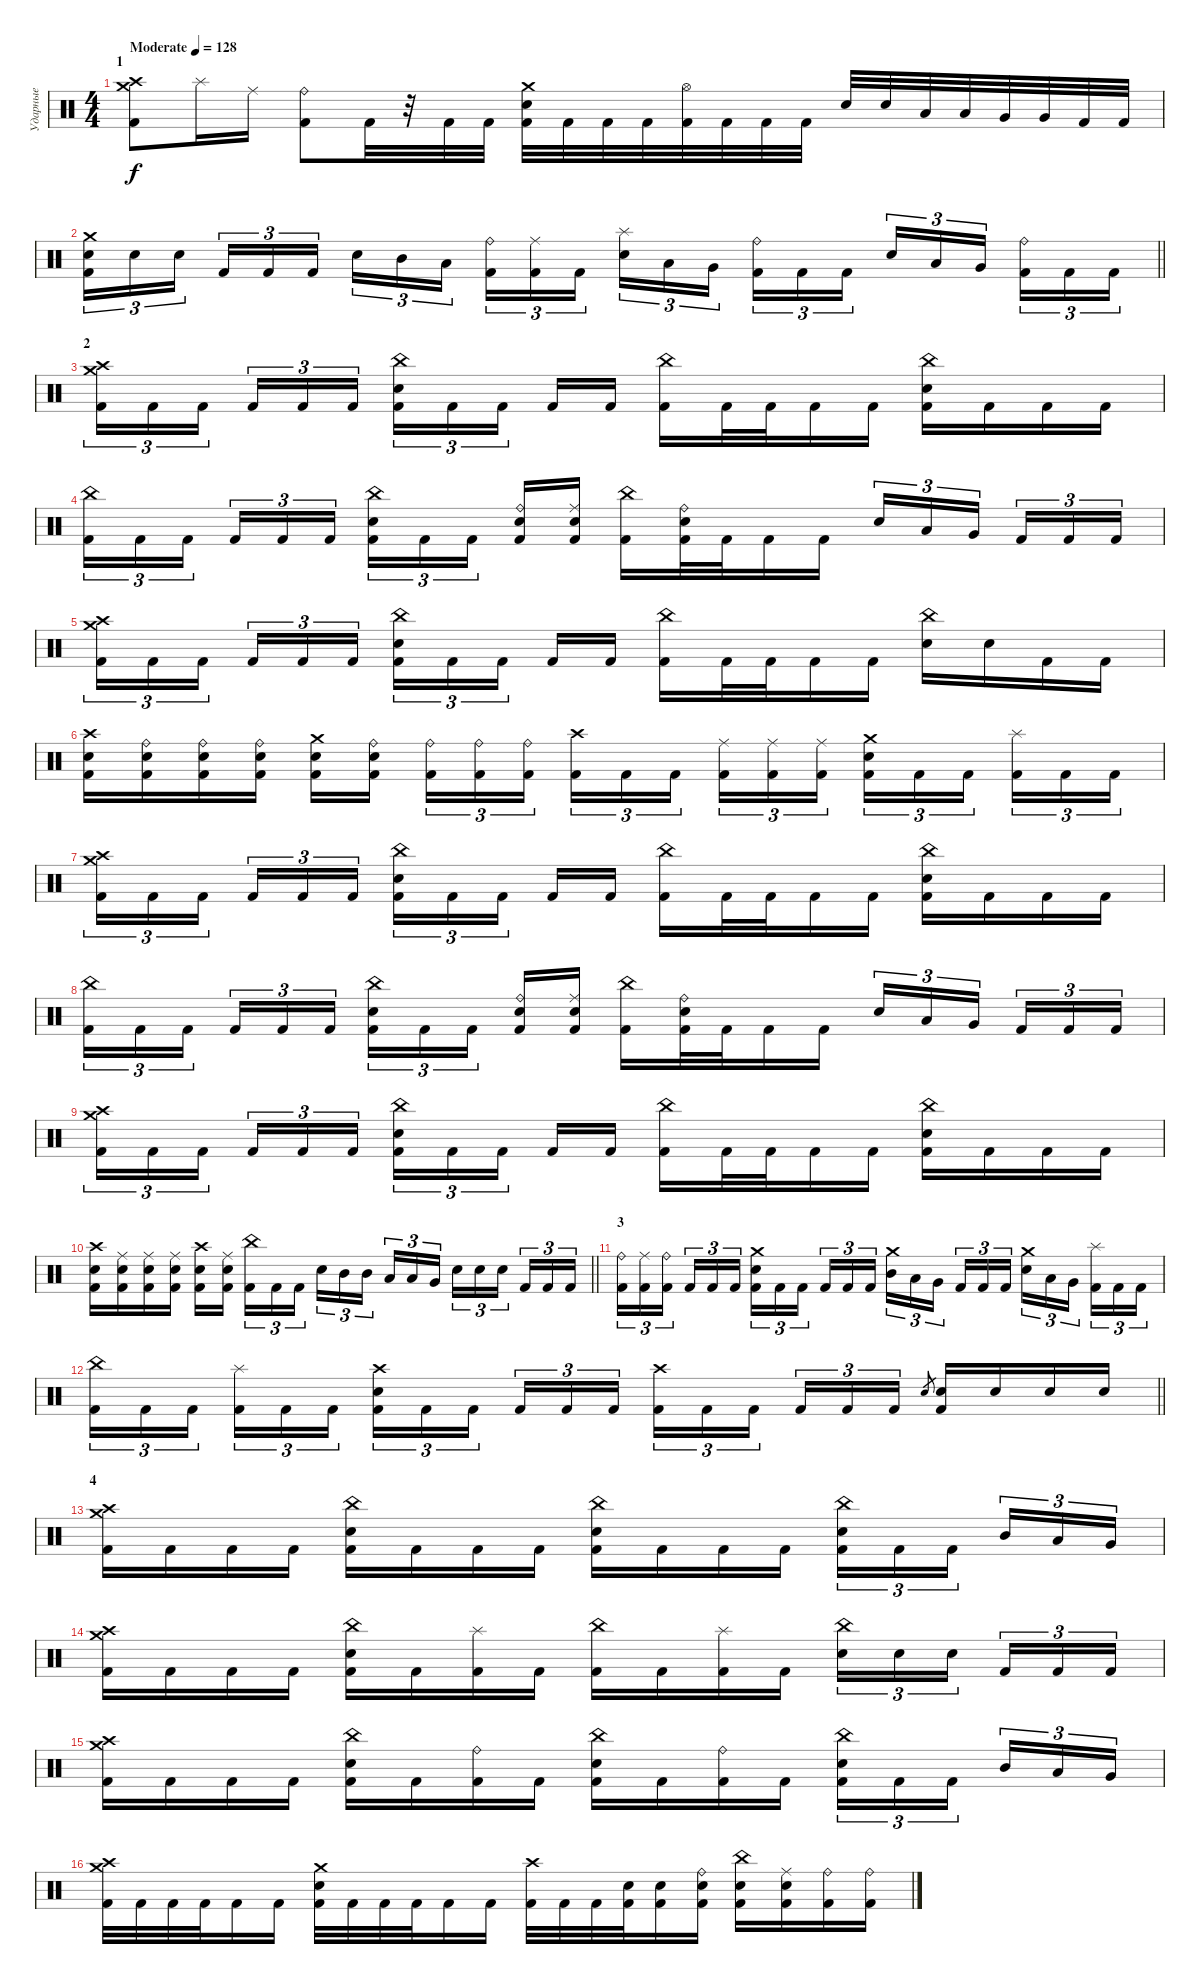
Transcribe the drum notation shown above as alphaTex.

\track ("Ударные" "Ударные") {instrument percussion}
\staff {score}
\articulation defaults
\ts (4 4)
\section ("" "1")
\tempo (128 "Moderate")
\clef neutral
\ks c
("Crash medium (hit)" "Crash high (hit)" "Kick (hit) 2").8{dy f} "Splash (hit)".16 "Ride (middle)".16 ("Ride (bell)" "Kick (hit) 2").8 "Kick (hit) 2".32 r.32 "Kick (hit) 2".32 "Kick (hit) 2".32 ("Crash medium (hit)" "Electric Snare (hit)" "Kick (hit) 2").32 "Kick (hit) 2".32 "Kick (hit) 2".32 "Kick (hit) 2".32 ("Hi-Hat (open)" "Kick (hit) 2").32 "Kick (hit) 2".32 "Kick (hit) 2".32 "Kick (hit) 2".32 "Electric Snare (hit)".32 "Electric Snare (hit)".32 "Low Tom (hit)".32 "Low Tom (hit)".32 "Very Low Tom (hit)".32 "Very Low Tom (hit)".32 "Kick (hit) 2".32 "Kick (hit) 2".32 |
\barLineRight lightlight
("Crash medium (hit)" "Electric Snare (hit)" "Kick (hit) 2").16{tu (3 2)} "Electric Snare (hit)".16{tu (3 2)} "Electric Snare (hit)".16{tu (3 2) beam splitsecondary} "Kick (hit) 2".16{tu (3 2)} "Kick (hit) 2".16{tu (3 2)} "Kick (hit) 2".16{tu (3 2)} "Electric Snare (hit)".16{tu (3 2)} "Mid Tom (hit)".16{tu (3 2)} "Low Tom (hit)".16{tu (3 2) beam splitsecondary} ("Ride (bell)" "Kick (hit) 2").16{tu (3 2)} ("Ride (middle)" "Kick (hit) 2").16{tu (3 2)} "Kick (hit) 2".16{tu (3 2)} ("Splash (hit)" "Electric Snare (hit)").16{tu (3 2)} "Low Tom (hit)".16{tu (3 2)} "Very Low Tom (hit)".16{tu (3 2) beam splitsecondary} ("Ride (bell)" "Kick (hit) 2").16{tu (3 2)} "Kick (hit) 2".16{tu (3 2)} "Kick (hit) 2".16{tu (3 2)} "Electric Snare (hit)".16{tu (3 2)} "Low Tom (hit)".16{tu (3 2)} "Very Low Tom (hit)".16{tu (3 2) beam splitsecondary} ("Ride (bell)" "Kick (hit) 2").16{tu (3 2)} "Kick (hit) 2".16{tu (3 2)} "Kick (hit) 2".16{tu (3 2)} |
\section ("" "2")
("Crash medium (hit)" "Crash high (hit)" "Kick (hit) 2").16{tu (3 2)} "Kick (hit) 2".16{tu (3 2)} "Kick (hit) 2".16{tu (3 2) beam splitsecondary} "Kick (hit) 2".16{tu (3 2)} "Kick (hit) 2".16{tu (3 2)} "Kick (hit) 2".16{tu (3 2)} ("China (hit)" "Electric Snare (hit)" "Kick (hit) 2").16{tu (3 2)} "Kick (hit) 2".16{tu (3 2)} "Kick (hit) 2".16{tu (3 2) beam splitsecondary} "Kick (hit) 2".16 "Kick (hit) 2".16 ("China (hit)" "Kick (hit) 2").16 "Kick (hit) 2".32 "Kick (hit) 2".32 "Kick (hit) 2".16 "Kick (hit) 2".16 ("China (hit)" "Electric Snare (hit)" "Kick (hit) 2").16 "Kick (hit) 2".16 "Kick (hit) 2".16 "Kick (hit) 2".16 |
("China (hit)" "Kick (hit) 2").16{tu (3 2)} "Kick (hit) 2".16{tu (3 2)} "Kick (hit) 2".16{tu (3 2) beam splitsecondary} "Kick (hit) 2".16{tu (3 2)} "Kick (hit) 2".16{tu (3 2)} "Kick (hit) 2".16{tu (3 2)} ("China (hit)" "Electric Snare (hit)" "Kick (hit) 2").16{tu (3 2)} "Kick (hit) 2".16{tu (3 2)} "Kick (hit) 2".16{tu (3 2) beam splitsecondary} ("Ride (bell)" "Electric Snare (hit)" "Kick (hit) 2").16 ("Ride (middle)" "Electric Snare (hit)" "Kick (hit) 2").16 ("China (hit)" "Kick (hit) 2").16 ("Ride (bell)" "Electric Snare (hit)" "Kick (hit) 2").32 "Kick (hit) 2".32 "Kick (hit) 2".16 "Kick (hit) 2".16 "Electric Snare (hit)".16{tu (3 2)} "Low Tom (hit)".16{tu (3 2)} "Very Low Tom (hit)".16{tu (3 2) beam splitsecondary} "Kick (hit) 2".16{tu (3 2)} "Kick (hit) 2".16{tu (3 2)} "Kick (hit) 2".16{tu (3 2)} |
("Crash medium (hit)" "Crash high (hit)" "Kick (hit) 2").16{tu (3 2)} "Kick (hit) 2".16{tu (3 2)} "Kick (hit) 2".16{tu (3 2) beam splitsecondary} "Kick (hit) 2".16{tu (3 2)} "Kick (hit) 2".16{tu (3 2)} "Kick (hit) 2".16{tu (3 2)} ("China (hit)" "Electric Snare (hit)" "Kick (hit) 2").16{tu (3 2)} "Kick (hit) 2".16{tu (3 2)} "Kick (hit) 2".16{tu (3 2) beam splitsecondary} "Kick (hit) 2".16 "Kick (hit) 2".16 ("China (hit)" "Kick (hit) 2").16 "Kick (hit) 2".32 "Kick (hit) 2".32 "Kick (hit) 2".16 "Kick (hit) 2".16 ("China (hit)" "Electric Snare (hit)").16 "Electric Snare (hit)".16 "Kick (hit) 2".16 "Kick (hit) 2".16 |
("Crash high (hit)" "Electric Snare (hit)" "Kick (hit) 2").16 ("Ride (bell)" "Electric Snare (hit)" "Kick (hit) 2").16 ("Ride (bell)" "Electric Snare (hit)" "Kick (hit) 2").16 ("Ride (bell)" "Electric Snare (hit)" "Kick (hit) 2").16 ("Crash medium (hit)" "Electric Snare (hit)" "Kick (hit) 2").16 ("Ride (bell)" "Electric Snare (hit)" "Kick (hit) 2").16{beam splitsecondary} ("Ride (bell)" "Kick (hit) 2").16{tu (3 2)} ("Ride (bell)" "Kick (hit) 2").16{tu (3 2)} ("Ride (bell)" "Kick (hit) 2").16{tu (3 2)} ("Crash high (hit)" "Kick (hit) 2").16{tu (3 2)} "Kick (hit) 2".16{tu (3 2)} "Kick (hit) 2".16{tu (3 2) beam splitsecondary} ("Ride (middle)" "Kick (hit) 2").16{tu (3 2)} ("Ride (middle)" "Kick (hit) 2").16{tu (3 2)} ("Ride (middle)" "Kick (hit) 2").16{tu (3 2)} ("Crash medium (hit)" "Electric Snare (hit)" "Kick (hit) 2").16{tu (3 2)} "Kick (hit) 2".16{tu (3 2)} "Kick (hit) 2".16{tu (3 2) beam splitsecondary} ("Splash (hit)" "Kick (hit) 2").16{tu (3 2)} "Kick (hit) 2".16{tu (3 2)} "Kick (hit) 2".16{tu (3 2)} |
("Crash high (hit)" "Crash medium (hit)" "Kick (hit) 2").16{tu (3 2)} "Kick (hit) 2".16{tu (3 2)} "Kick (hit) 2".16{tu (3 2) beam splitsecondary} "Kick (hit) 2".16{tu (3 2)} "Kick (hit) 2".16{tu (3 2)} "Kick (hit) 2".16{tu (3 2)} ("China (hit)" "Electric Snare (hit)" "Kick (hit) 2").16{tu (3 2)} "Kick (hit) 2".16{tu (3 2)} "Kick (hit) 2".16{tu (3 2) beam splitsecondary} "Kick (hit) 2".16 "Kick (hit) 2".16 ("China (hit)" "Kick (hit) 2").16 "Kick (hit) 2".32 "Kick (hit) 2".32 "Kick (hit) 2".16 "Kick (hit) 2".16 ("China (hit)" "Electric Snare (hit)" "Kick (hit) 2").16 "Kick (hit) 2".16 "Kick (hit) 2".16 "Kick (hit) 2".16 |
("China (hit)" "Kick (hit) 2").16{tu (3 2)} "Kick (hit) 2".16{tu (3 2)} "Kick (hit) 2".16{tu (3 2) beam splitsecondary} "Kick (hit) 2".16{tu (3 2)} "Kick (hit) 2".16{tu (3 2)} "Kick (hit) 2".16{tu (3 2)} ("China (hit)" "Electric Snare (hit)" "Kick (hit) 2").16{tu (3 2)} "Kick (hit) 2".16{tu (3 2)} "Kick (hit) 2".16{tu (3 2) beam splitsecondary} ("Ride (bell)" "Electric Snare (hit)" "Kick (hit) 2").16 ("Ride (middle)" "Electric Snare (hit)" "Kick (hit) 2").16 ("China (hit)" "Kick (hit) 2").16 ("Ride (bell)" "Electric Snare (hit)" "Kick (hit) 2").32 "Kick (hit) 2".32 "Kick (hit) 2".16 "Kick (hit) 2".16 "Electric Snare (hit)".16{tu (3 2)} "Low Tom (hit)".16{tu (3 2)} "Very Low Tom (hit)".16{tu (3 2) beam splitsecondary} "Kick (hit) 2".16{tu (3 2)} "Kick (hit) 2".16{tu (3 2)} "Kick (hit) 2".16{tu (3 2)} |
("Crash medium (hit)" "Crash high (hit)" "Kick (hit) 2").16{tu (3 2)} "Kick (hit) 2".16{tu (3 2)} "Kick (hit) 2".16{tu (3 2) beam splitsecondary} "Kick (hit) 2".16{tu (3 2)} "Kick (hit) 2".16{tu (3 2)} "Kick (hit) 2".16{tu (3 2)} ("China (hit)" "Electric Snare (hit)" "Kick (hit) 2").16{tu (3 2)} "Kick (hit) 2".16{tu (3 2)} "Kick (hit) 2".16{tu (3 2) beam splitsecondary} "Kick (hit) 2".16 "Kick (hit) 2".16 ("China (hit)" "Kick (hit) 2").16 "Kick (hit) 2".32 "Kick (hit) 2".32 "Kick (hit) 2".16 "Kick (hit) 2".16 ("China (hit)" "Electric Snare (hit)" "Kick (hit) 2").16 "Kick (hit) 2".16 "Kick (hit) 2".16 "Kick (hit) 2".16 |
\barLineRight lightlight
("Crash high (hit)" "Electric Snare (hit)" "Kick (hit) 2").16 ("Ride (middle)" "Electric Snare (hit)" "Kick (hit) 2").16 ("Ride (middle)" "Electric Snare (hit)" "Kick (hit) 2").16 ("Ride (middle)" "Electric Snare (hit)" "Kick (hit) 2").16 ("Crash high (hit)" "Electric Snare (hit)" "Kick (hit) 2").16 ("Ride (middle)" "Electric Snare (hit)" "Kick (hit) 2").16{beam splitsecondary} ("China (hit)" "Kick (hit) 2").16{tu (3 2)} "Kick (hit) 2".16{tu (3 2)} "Kick (hit) 2".16{tu (3 2)} "Electric Snare (hit)".16{tu (3 2)} "Mid Tom (hit)".16{tu (3 2)} "Mid Tom (hit)".16{tu (3 2) beam splitsecondary} "Low Tom (hit)".16{tu (3 2)} "Low Tom (hit)".16{tu (3 2)} "Very Low Tom (hit)".16{tu (3 2)} "Electric Snare (hit)".16{tu (3 2)} "Electric Snare (hit)".16{tu (3 2)} "Electric Snare (hit)".16{tu (3 2) beam splitsecondary} "Kick (hit) 2".16{tu (3 2)} "Kick (hit) 2".16{tu (3 2)} "Kick (hit) 2".16{tu (3 2)} |
\section ("" "3")
("Ride (bell)" "Kick (hit) 2").16{tu (3 2)} ("Ride (middle)" "Kick (hit) 2").16{tu (3 2)} ("Ride (bell)" "Kick (hit) 2").16{tu (3 2) beam splitsecondary} "Kick (hit) 2".16{tu (3 2)} "Kick (hit) 2".16{tu (3 2)} "Kick (hit) 2".16{tu (3 2)} ("Crash medium (hit)" "Electric Snare (hit)" "Kick (hit) 2").16{tu (3 2)} "Kick (hit) 2".16{tu (3 2)} "Kick (hit) 2".16{tu (3 2) beam splitsecondary} "Kick (hit) 2".16{tu (3 2)} "Kick (hit) 2".16{tu (3 2)} "Kick (hit) 2".16{tu (3 2)} ("Crash medium (hit)" "Mid Tom (hit)").16{tu (3 2)} "Low Tom (hit)".16{tu (3 2)} "Very Low Tom (hit)".16{tu (3 2) beam splitsecondary} "Kick (hit) 2".16{tu (3 2)} "Kick (hit) 2".16{tu (3 2)} "Kick (hit) 2".16{tu (3 2)} ("Crash medium (hit)" "Electric Snare (hit)").16{tu (3 2)} "Low Tom (hit)".16{tu (3 2)} "Very Low Tom (hit)".16{tu (3 2) beam splitsecondary} ("Splash (hit)" "Kick (hit) 2").16{tu (3 2)} "Kick (hit) 2".16{tu (3 2)} "Kick (hit) 2".16{tu (3 2)} |
\barLineRight lightlight
("China (hit)" "Kick (hit) 2").16{tu (3 2)} "Kick (hit) 2".16{tu (3 2)} "Kick (hit) 2".16{tu (3 2) beam splitsecondary} ("Splash (hit)" "Kick (hit) 2").16{tu (3 2)} "Kick (hit) 2".16{tu (3 2)} "Kick (hit) 2".16{tu (3 2)} ("Crash high (hit)" "Electric Snare (hit)" "Kick (hit) 2").16{tu (3 2)} "Kick (hit) 2".16{tu (3 2)} "Kick (hit) 2".16{tu (3 2) beam splitsecondary} "Kick (hit) 2".16{tu (3 2)} "Kick (hit) 2".16{tu (3 2)} "Kick (hit) 2".16{tu (3 2)} ("Crash high (hit)" "Kick (hit) 2").16{tu (3 2)} "Kick (hit) 2".16{tu (3 2)} "Kick (hit) 2".16{tu (3 2) beam splitsecondary} "Kick (hit) 2".16{tu (3 2)} "Kick (hit) 2".16{tu (3 2)} "Kick (hit) 2".16{tu (3 2)} "Electric Snare (hit)".8{gr} ("Electric Snare (hit)" "Kick (hit) 2").16 "Electric Snare (hit)".16 "Electric Snare (hit)".16 "Electric Snare (hit)".16 |
\section ("" "4")
("Crash high (hit)" "Crash medium (hit)" "Kick (hit) 2").16 "Kick (hit) 2".16 "Kick (hit) 2".16 "Kick (hit) 2".16 ("China (hit)" "Electric Snare (hit)" "Kick (hit) 2").16 "Kick (hit) 2".16 "Kick (hit) 2".16 "Kick (hit) 2".16 ("China (hit)" "Electric Snare (hit)" "Kick (hit) 2").16 "Kick (hit) 2".16 "Kick (hit) 2".16 "Kick (hit) 2".16 ("China (hit)" "Electric Snare (hit)" "Kick (hit) 2").16{tu (3 2)} "Kick (hit) 2".16{tu (3 2)} "Kick (hit) 2".16{tu (3 2) beam splitsecondary} "Mid Tom (hit)".16{tu (3 2)} "Low Tom (hit)".16{tu (3 2)} "Very Low Tom (hit)".16{tu (3 2)} |
("Crash high (hit)" "Crash medium (hit)" "Kick (hit) 2").16 "Kick (hit) 2".16 "Kick (hit) 2".16 "Kick (hit) 2".16 ("China (hit)" "Electric Snare (hit)" "Kick (hit) 2").16 "Kick (hit) 2".16 ("Splash (hit)" "Kick (hit) 2").16 "Kick (hit) 2".16 ("China (hit)" "Kick (hit) 2").16 "Kick (hit) 2".16 ("Splash (hit)" "Kick (hit) 2").16 "Kick (hit) 2".16 ("China (hit)" "Electric Snare (hit)").16{tu (3 2)} "Electric Snare (hit)".16{tu (3 2)} "Electric Snare (hit)".16{tu (3 2) beam splitsecondary} "Kick (hit) 2".16{tu (3 2)} "Kick (hit) 2".16{tu (3 2)} "Kick (hit) 2".16{tu (3 2)} |
("Crash high (hit)" "Crash medium (hit)" "Kick (hit) 2").16 "Kick (hit) 2".16 "Kick (hit) 2".16 "Kick (hit) 2".16 ("China (hit)" "Electric Snare (hit)" "Kick (hit) 2").16 "Kick (hit) 2".16 ("Ride (bell)" "Kick (hit) 2").16 "Kick (hit) 2".16 ("China (hit)" "Electric Snare (hit)" "Kick (hit) 2").16 "Kick (hit) 2".16 ("Ride (bell)" "Kick (hit) 2").16 "Kick (hit) 2".16 ("China (hit)" "Electric Snare (hit)" "Kick (hit) 2").16{tu (3 2)} "Kick (hit) 2".16{tu (3 2)} "Kick (hit) 2".16{tu (3 2) beam splitsecondary} "Mid Tom (hit)".16{tu (3 2)} "Low Tom (hit)".16{tu (3 2)} "Very Low Tom (hit)".16{tu (3 2)} |
("Crash medium (hit)" "Crash high (hit)" "Kick (hit) 2").32 "Kick (hit) 2".32 "Kick (hit) 2".32 "Kick (hit) 2".32 "Kick (hit) 2".16 "Kick (hit) 2".16 ("Crash medium (hit)" "Electric Snare (hit)" "Kick (hit) 2").32 "Kick (hit) 2".32 "Kick (hit) 2".32 "Kick (hit) 2".32 "Kick (hit) 2".16 "Kick (hit) 2".16 ("Crash high (hit)" "Kick (hit) 2").32 "Kick (hit) 2".32 "Kick (hit) 2".32 ("Electric Snare (hit)" "Kick (hit) 2").32 ("Electric Snare (hit)" "Kick (hit) 2").16 ("Ride (bell)" "Electric Snare (hit)" "Kick (hit) 2").16 ("China (hit)" "Electric Snare (hit)" "Kick (hit) 2").16 ("Ride (middle)" "Electric Snare (hit)" "Kick (hit) 2").16 ("Ride (bell)" "Kick (hit) 2").16 ("Ride (bell)" "Kick (hit) 2").16
